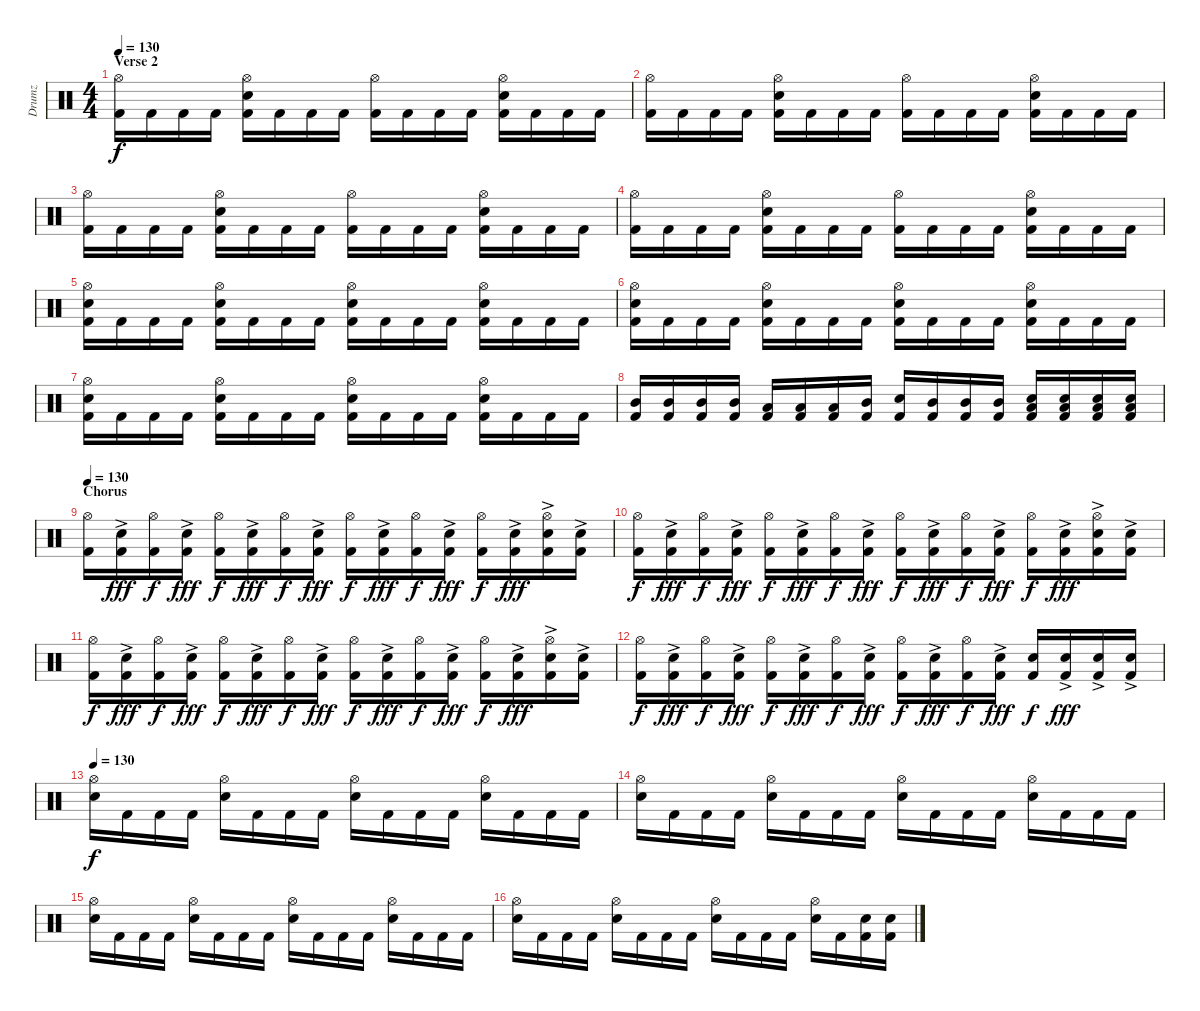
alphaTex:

\track ("Drumz" "Drumz") {instrument percussion}
\staff {score}
\articulation defaults
\ts (4 4)
\section ("" "Verse 2")
\tempo 130
\clef neutral
\ks c
("Hi-Hat (open)" "Kick (hit) 2").16{dy f} "Kick (hit) 2".16 "Kick (hit) 2".16 "Kick (hit) 2".16 ("Hi-Hat (open)" "Snare (hit) 2" "Kick (hit) 2").16 "Kick (hit) 2".16 "Kick (hit) 2".16 "Kick (hit) 2".16 ("Hi-Hat (open)" "Kick (hit) 2").16 "Kick (hit) 2".16 "Kick (hit) 2".16 "Kick (hit) 2".16 ("Hi-Hat (open)" "Snare (hit) 2" "Kick (hit) 2").16 "Kick (hit) 2".16 "Kick (hit) 2".16 "Kick (hit) 2".16 |
("Hi-Hat (open)" "Kick (hit) 2").16 "Kick (hit) 2".16 "Kick (hit) 2".16 "Kick (hit) 2".16 ("Hi-Hat (open)" "Snare (hit) 2" "Kick (hit) 2").16 "Kick (hit) 2".16 "Kick (hit) 2".16 "Kick (hit) 2".16 ("Hi-Hat (open)" "Kick (hit) 2").16 "Kick (hit) 2".16 "Kick (hit) 2".16 "Kick (hit) 2".16 ("Hi-Hat (open)" "Snare (hit) 2" "Kick (hit) 2").16 "Kick (hit) 2".16 "Kick (hit) 2".16 "Kick (hit) 2".16 |
("Hi-Hat (open)" "Kick (hit) 2").16 "Kick (hit) 2".16 "Kick (hit) 2".16 "Kick (hit) 2".16 ("Hi-Hat (open)" "Snare (hit) 2" "Kick (hit) 2").16 "Kick (hit) 2".16 "Kick (hit) 2".16 "Kick (hit) 2".16 ("Hi-Hat (open)" "Kick (hit) 2").16 "Kick (hit) 2".16 "Kick (hit) 2".16 "Kick (hit) 2".16 ("Hi-Hat (open)" "Snare (hit) 2" "Kick (hit) 2").16 "Kick (hit) 2".16 "Kick (hit) 2".16 "Kick (hit) 2".16 |
("Hi-Hat (open)" "Kick (hit) 2").16 "Kick (hit) 2".16 "Kick (hit) 2".16 "Kick (hit) 2".16 ("Hi-Hat (open)" "Snare (hit) 2" "Kick (hit) 2").16 "Kick (hit) 2".16 "Kick (hit) 2".16 "Kick (hit) 2".16 ("Hi-Hat (open)" "Kick (hit) 2").16 "Kick (hit) 2".16 "Kick (hit) 2".16 "Kick (hit) 2".16 ("Hi-Hat (open)" "Snare (hit) 2" "Kick (hit) 2").16 "Kick (hit) 2".16 "Kick (hit) 2".16 "Kick (hit) 2".16 |
("Hi-Hat (open)" "Snare (hit) 2" "Kick (hit) 2").16 "Kick (hit) 2".16 "Kick (hit) 2".16 "Kick (hit) 2".16 ("Hi-Hat (open)" "Snare (hit) 2" "Kick (hit) 2").16 "Kick (hit) 2".16 "Kick (hit) 2".16 "Kick (hit) 2".16 ("Hi-Hat (open)" "Snare (hit) 2" "Kick (hit) 2").16 "Kick (hit) 2".16 "Kick (hit) 2".16 "Kick (hit) 2".16 ("Hi-Hat (open)" "Snare (hit) 2" "Kick (hit) 2").16 "Kick (hit) 2".16 "Kick (hit) 2".16 "Kick (hit) 2".16 |
("Hi-Hat (open)" "Snare (hit) 2" "Kick (hit) 2").16 "Kick (hit) 2".16 "Kick (hit) 2".16 "Kick (hit) 2".16 ("Hi-Hat (open)" "Snare (hit) 2" "Kick (hit) 2").16 "Kick (hit) 2".16 "Kick (hit) 2".16 "Kick (hit) 2".16 ("Hi-Hat (open)" "Snare (hit) 2" "Kick (hit) 2").16 "Kick (hit) 2".16 "Kick (hit) 2".16 "Kick (hit) 2".16 ("Hi-Hat (open)" "Snare (hit) 2" "Kick (hit) 2").16 "Kick (hit) 2".16 "Kick (hit) 2".16 "Kick (hit) 2".16 |
("Hi-Hat (open)" "Snare (hit) 2" "Kick (hit) 2").16 "Kick (hit) 2".16 "Kick (hit) 2".16 "Kick (hit) 2".16 ("Hi-Hat (open)" "Snare (hit) 2" "Kick (hit) 2").16 "Kick (hit) 2".16 "Kick (hit) 2".16 "Kick (hit) 2".16 ("Hi-Hat (open)" "Snare (hit) 2" "Kick (hit) 2").16 "Kick (hit) 2".16 "Kick (hit) 2".16 "Kick (hit) 2".16 ("Hi-Hat (open)" "Snare (hit) 2" "Kick (hit) 2").16 "Kick (hit) 2".16 "Kick (hit) 2".16 "Kick (hit) 2".16 |
("Mid Tom (hit)" "Kick (hit) 2").16 ("Mid Tom (hit)" "Kick (hit) 2").16 ("Mid Tom (hit)" "Kick (hit) 2").16 ("Mid Tom (hit)" "Kick (hit) 2").16 ("Low Tom (hit)" "Kick (hit) 2").16 ("Low Tom (hit)" "Kick (hit) 2").16 ("Low Tom (hit)" "Kick (hit) 2").16 ("Mid Tom (hit)" "Kick (hit) 2").16 ("Snare (hit) 2" "Kick (hit) 2").16 ("Mid Tom (hit)" "Kick (hit) 2").16 ("Mid Tom (hit)" "Kick (hit) 2").16 ("Mid Tom (hit)" "Kick (hit) 2").16 ("Low Tom (hit)" "Snare (hit) 2" "Kick (hit) 2").16 ("Low Tom (hit)" "Snare (hit) 2" "Kick (hit) 2").16 ("Low Tom (hit)" "Snare (hit) 2" "Kick (hit) 2").16 ("Low Tom (hit)" "Snare (hit) 2" "Kick (hit) 2").16 |
\section ("" "Chorus")
\tempo 130
("Hi-Hat (open)" "Kick (hit) 2").16 ("Snare (hit) 2"{ac} "Kick (hit) 2").16{dy fff} ("Hi-Hat (open)" "Kick (hit) 2").16{dy f} ("Snare (hit) 2"{ac} "Kick (hit) 2").16{dy fff} ("Hi-Hat (open)" "Kick (hit) 2").16{dy f} ("Snare (hit) 2" "Kick (hit) 2"{ac}).16{dy fff} ("Hi-Hat (open)" "Kick (hit) 2").16{dy f} ("Snare (hit) 2"{ac} "Kick (hit) 2"{ac}).16{dy fff} ("Hi-Hat (open)" "Kick (hit) 2").16{dy f} ("Snare (hit) 2"{ac} "Kick (hit) 2").16{dy fff} ("Hi-Hat (open)" "Kick (hit) 2").16{dy f} ("Snare (hit) 2"{ac} "Kick (hit) 2").16{dy fff} ("Hi-Hat (open)" "Kick (hit) 2").16{dy f} ("Snare (hit) 2"{ac} "Kick (hit) 2").16{dy fff} ("Hi-Hat (open)" "Snare (hit) 2"{ac} "Kick (hit) 2").16 ("Snare (hit) 2"{ac} "Kick (hit) 2").16 |
("Hi-Hat (open)" "Kick (hit) 2").16{dy f} ("Snare (hit) 2"{ac} "Kick (hit) 2").16{dy fff} ("Hi-Hat (open)" "Kick (hit) 2").16{dy f} ("Snare (hit) 2"{ac} "Kick (hit) 2").16{dy fff} ("Hi-Hat (open)" "Kick (hit) 2").16{dy f} ("Snare (hit) 2" "Kick (hit) 2"{ac}).16{dy fff} ("Hi-Hat (open)" "Kick (hit) 2").16{dy f} ("Snare (hit) 2"{ac} "Kick (hit) 2"{ac}).16{dy fff} ("Hi-Hat (open)" "Kick (hit) 2").16{dy f} ("Snare (hit) 2"{ac} "Kick (hit) 2").16{dy fff} ("Hi-Hat (open)" "Kick (hit) 2").16{dy f} ("Snare (hit) 2"{ac} "Kick (hit) 2").16{dy fff} ("Hi-Hat (open)" "Kick (hit) 2").16{dy f} ("Snare (hit) 2"{ac} "Kick (hit) 2").16{dy fff} ("Hi-Hat (open)" "Snare (hit) 2"{ac} "Kick (hit) 2").16 ("Snare (hit) 2"{ac} "Kick (hit) 2").16 |
("Hi-Hat (open)" "Kick (hit) 2").16{dy f} ("Snare (hit) 2"{ac} "Kick (hit) 2").16{dy fff} ("Hi-Hat (open)" "Kick (hit) 2").16{dy f} ("Snare (hit) 2"{ac} "Kick (hit) 2").16{dy fff} ("Hi-Hat (open)" "Kick (hit) 2").16{dy f} ("Snare (hit) 2" "Kick (hit) 2"{ac}).16{dy fff} ("Hi-Hat (open)" "Kick (hit) 2").16{dy f} ("Snare (hit) 2"{ac} "Kick (hit) 2"{ac}).16{dy fff} ("Hi-Hat (open)" "Kick (hit) 2").16{dy f} ("Snare (hit) 2"{ac} "Kick (hit) 2").16{dy fff} ("Hi-Hat (open)" "Kick (hit) 2").16{dy f} ("Snare (hit) 2"{ac} "Kick (hit) 2").16{dy fff} ("Hi-Hat (open)" "Kick (hit) 2").16{dy f} ("Snare (hit) 2"{ac} "Kick (hit) 2").16{dy fff} ("Hi-Hat (open)" "Snare (hit) 2"{ac} "Kick (hit) 2").16 ("Snare (hit) 2"{ac} "Kick (hit) 2").16 |
("Hi-Hat (open)" "Kick (hit) 2").16{dy f} ("Snare (hit) 2"{ac} "Kick (hit) 2").16{dy fff} ("Hi-Hat (open)" "Kick (hit) 2").16{dy f} ("Snare (hit) 2"{ac} "Kick (hit) 2").16{dy fff} ("Hi-Hat (open)" "Kick (hit) 2").16{dy f} ("Snare (hit) 2" "Kick (hit) 2"{ac}).16{dy fff} ("Hi-Hat (open)" "Kick (hit) 2").16{dy f} ("Snare (hit) 2"{ac} "Kick (hit) 2"{ac}).16{dy fff} ("Hi-Hat (open)" "Kick (hit) 2").16{dy f} ("Snare (hit) 2"{ac} "Kick (hit) 2").16{dy fff} ("Hi-Hat (open)" "Kick (hit) 2").16{dy f} ("Snare (hit) 2"{ac} "Kick (hit) 2").16{dy fff} ("Snare (hit) 2" "Kick (hit) 2").16{dy f} ("Snare (hit) 2"{ac} "Kick (hit) 2").16{dy fff} ("Snare (hit) 2"{ac} "Kick (hit) 2").16 ("Snare (hit) 2"{ac} "Kick (hit) 2").16 |
\tempo 130
("Hi-Hat (open)" "Snare (hit) 2").16{dy f} "Kick (hit) 2".16 "Kick (hit) 2".16 "Kick (hit) 2".16 ("Hi-Hat (open)" "Snare (hit) 2").16 "Kick (hit) 2".16 "Kick (hit) 2".16 "Kick (hit) 2".16 ("Hi-Hat (open)" "Snare (hit) 2").16 "Kick (hit) 2".16 "Kick (hit) 2".16 "Kick (hit) 2".16 ("Hi-Hat (open)" "Snare (hit) 2").16 "Kick (hit) 2".16 "Kick (hit) 2".16 "Kick (hit) 2".16 |
("Hi-Hat (open)" "Snare (hit) 2").16 "Kick (hit) 2".16 "Kick (hit) 2".16 "Kick (hit) 2".16 ("Hi-Hat (open)" "Snare (hit) 2").16 "Kick (hit) 2".16 "Kick (hit) 2".16 "Kick (hit) 2".16 ("Hi-Hat (open)" "Snare (hit) 2").16 "Kick (hit) 2".16 "Kick (hit) 2".16 "Kick (hit) 2".16 ("Hi-Hat (open)" "Snare (hit) 2").16 "Kick (hit) 2".16 "Kick (hit) 2".16 "Kick (hit) 2".16 |
("Hi-Hat (open)" "Snare (hit) 2").16 "Kick (hit) 2".16 "Kick (hit) 2".16 "Kick (hit) 2".16 ("Hi-Hat (open)" "Snare (hit) 2").16 "Kick (hit) 2".16 "Kick (hit) 2".16 "Kick (hit) 2".16 ("Hi-Hat (open)" "Snare (hit) 2").16 "Kick (hit) 2".16 "Kick (hit) 2".16 "Kick (hit) 2".16 ("Hi-Hat (open)" "Snare (hit) 2").16 "Kick (hit) 2".16 "Kick (hit) 2".16 "Kick (hit) 2".16 |
("Hi-Hat (open)" "Snare (hit) 2").16 "Kick (hit) 2".16 "Kick (hit) 2".16 "Kick (hit) 2".16 ("Hi-Hat (open)" "Snare (hit) 2").16 "Kick (hit) 2".16 "Kick (hit) 2".16 "Kick (hit) 2".16 ("Hi-Hat (open)" "Snare (hit) 2").16 "Kick (hit) 2".16 "Kick (hit) 2".16 "Kick (hit) 2".16 ("Hi-Hat (open)" "Snare (hit) 2").16 "Kick (hit) 2".16 ("Snare (hit) 2" "Kick (hit) 2").16 ("Snare (hit) 2" "Kick (hit) 2").16
